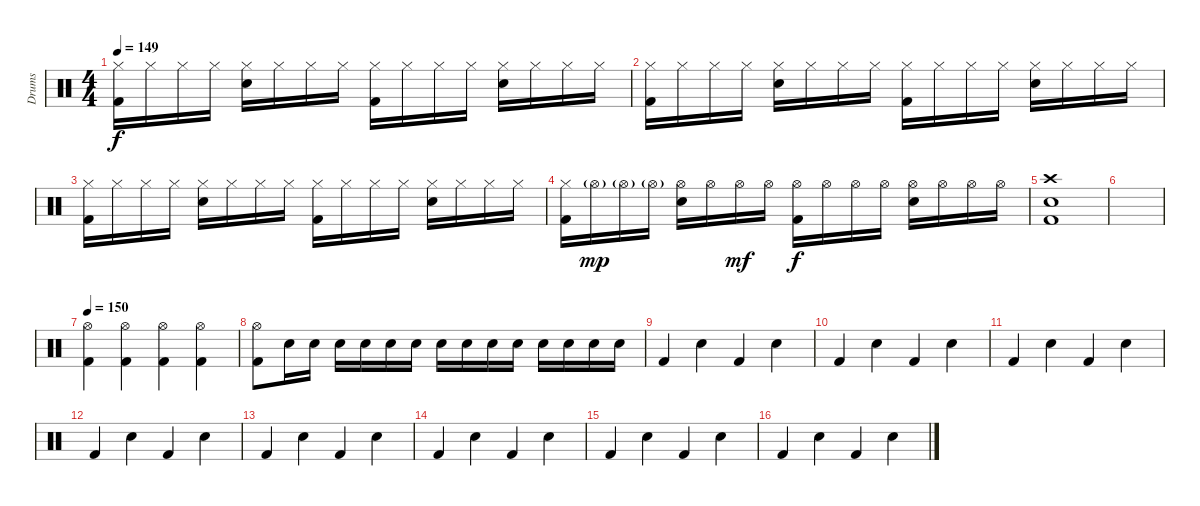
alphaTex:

\track ("Drums" "Drums") {instrument percussion}
\staff {score}
\articulation defaults
\ts (4 4)
\tempo 149
\clef neutral
\ks c
("Hi-Hat (closed)" "Kick (hit) 2").16{dy f} "Hi-Hat (closed)".16 "Hi-Hat (closed)".16 "Hi-Hat (closed)".16 ("Hi-Hat (closed)" "Snare (hit) 2").16 "Hi-Hat (closed)".16 "Hi-Hat (closed)".16 "Hi-Hat (closed)".16 ("Hi-Hat (closed)" "Kick (hit) 2").16 "Hi-Hat (closed)".16 "Hi-Hat (closed)".16 "Hi-Hat (closed)".16 ("Hi-Hat (closed)" "Snare (hit) 2").16 "Hi-Hat (closed)".16 "Hi-Hat (closed)".16 "Hi-Hat (closed)".16 |
("Hi-Hat (closed)" "Kick (hit) 2").16 "Hi-Hat (closed)".16 "Hi-Hat (closed)".16 "Hi-Hat (closed)".16 ("Hi-Hat (closed)" "Snare (hit) 2").16 "Hi-Hat (closed)".16 "Hi-Hat (closed)".16 "Hi-Hat (closed)".16 ("Hi-Hat (closed)" "Kick (hit) 2").16 "Hi-Hat (closed)".16 "Hi-Hat (closed)".16 "Hi-Hat (closed)".16 ("Hi-Hat (closed)" "Snare (hit) 2").16 "Hi-Hat (closed)".16 "Hi-Hat (closed)".16 "Hi-Hat (closed)".16 |
("Hi-Hat (closed)" "Kick (hit) 2").16 "Hi-Hat (closed)".16 "Hi-Hat (closed)".16 "Hi-Hat (closed)".16 ("Hi-Hat (closed)" "Snare (hit) 2").16 "Hi-Hat (closed)".16 "Hi-Hat (closed)".16 "Hi-Hat (closed)".16 ("Hi-Hat (closed)" "Kick (hit) 2").16 "Hi-Hat (closed)".16 "Hi-Hat (closed)".16 "Hi-Hat (closed)".16 ("Hi-Hat (closed)" "Snare (hit) 2").16 "Hi-Hat (closed)".16 "Hi-Hat (closed)".16 "Hi-Hat (closed)".16 |
("Hi-Hat (closed)" "Kick (hit) 2").16 "Hi-Hat (open)"{g}.16{dy mp} "Hi-Hat (open)"{g}.16 "Hi-Hat (open)"{g}.16 ("Hi-Hat (open)" "Snare (hit) 2").16 "Hi-Hat (open)".16 "Hi-Hat (open)".16{dy mf} "Hi-Hat (open)".16 ("Hi-Hat (open)" "Kick (hit) 2").16{dy f} "Hi-Hat (open)".16 "Hi-Hat (open)".16 "Hi-Hat (open)".16 ("Hi-Hat (open)" "Snare (hit) 2").16 "Hi-Hat (open)".16 "Hi-Hat (open)".16 "Hi-Hat (open)".16 |
("Crash high (hit)" "Snare (hit) 2" "Kick (hit) 2").1 |
|
\tempo 150
("Hi-Hat (open)" "Kick (hit) 2").4 ("Hi-Hat (open)" "Kick (hit) 2").4 ("Hi-Hat (open)" "Kick (hit) 2").4 ("Hi-Hat (open)" "Kick (hit) 2").4 |
("Hi-Hat (open)" "Kick (hit) 2").8 "Snare (hit) 2".16 "Snare (hit) 2".16 "Snare (hit) 2".16 "Snare (hit) 2".16 "Snare (hit) 2".16 "Snare (hit) 2".16 "Snare (hit) 2".16 "Snare (hit) 2".16 "Snare (hit) 2".16 "Snare (hit) 2".16 "Snare (hit) 2".16 "Snare (hit) 2".16 "Snare (hit) 2".16 "Snare (hit) 2".16 |
"Kick (hit) 2".4 "Snare (hit) 2".4 "Kick (hit) 2".4 "Snare (hit) 2".4 |
"Kick (hit) 2".4 "Snare (hit) 2".4 "Kick (hit) 2".4 "Snare (hit) 2".4 |
"Kick (hit) 2".4 "Snare (hit) 2".4 "Kick (hit) 2".4 "Snare (hit) 2".4 |
"Kick (hit) 2".4 "Snare (hit) 2".4 "Kick (hit) 2".4 "Snare (hit) 2".4 |
"Kick (hit) 2".4 "Snare (hit) 2".4 "Kick (hit) 2".4 "Snare (hit) 2".4 |
"Kick (hit) 2".4 "Snare (hit) 2".4 "Kick (hit) 2".4 "Snare (hit) 2".4 |
"Kick (hit) 2".4 "Snare (hit) 2".4 "Kick (hit) 2".4 "Snare (hit) 2".4 |
"Kick (hit) 2".4 "Snare (hit) 2".4 "Kick (hit) 2".4 "Snare (hit) 2".4
